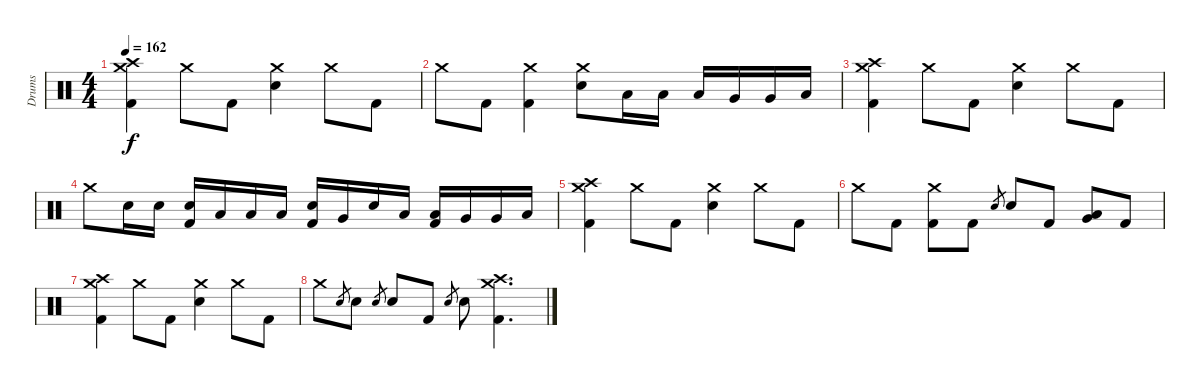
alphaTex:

\track ("Drums" "Drums") {instrument percussion}
\staff {score}
\articulation defaults
\ts (4 4)
\tempo 162
\clef neutral
\ks c
("Crash medium (hit)" "Crash high (hit)" "Kick (hit) 2").4{dy f} "Crash medium (hit)".8 "Kick (hit) 2".8 ("Crash medium (hit)" "Electric Snare (hit)").4 "Crash medium (hit)".8 "Kick (hit) 2".8 |
"Crash medium (hit)".8 "Kick (hit) 2".8 ("Crash medium (hit)" "Kick (hit) 2").4 ("Crash medium (hit)" "Electric Snare (hit)").8 "Low Tom (hit)".16 "Low Tom (hit)".16 "Low Tom (hit)".16 "Very Low Tom (hit)".16 "Very Low Tom (hit)".16 "Low Floor Tom (hit)".16 |
("Crash medium (hit)" "Crash high (hit)" "Kick (hit) 2").4 "Crash medium (hit)".8 "Kick (hit) 2".8 ("Crash medium (hit)" "Electric Snare (hit)").4 "Crash medium (hit)".8 "Kick (hit) 2".8 |
"Crash medium (hit)".8 "Electric Snare (hit)".16 "Electric Snare (hit)".16 ("Electric Snare (hit)" "Kick (hit) 2").16 "Low Tom (hit)".16 "Low Tom (hit)".16 "Low Tom (hit)".16 ("Electric Snare (hit)" "Kick (hit) 2").16 "Very Low Tom (hit)".16 "Electric Snare (hit)".16 "Low Tom (hit)".16 ("Low Tom (hit)" "Kick (hit) 2").16 "Very Low Tom (hit)".16 "Very Low Tom (hit)".16 "Low Floor Tom (hit)".16 |
("Crash medium (hit)" "Crash high (hit)" "Kick (hit) 2").4 "Crash medium (hit)".8 "Kick (hit) 2".8 ("Crash medium (hit)" "Electric Snare (hit)").4 "Crash medium (hit)".8 "Kick (hit) 2".8 |
"Crash medium (hit)".8 "Kick (hit) 2".8 ("Crash medium (hit)" "Kick (hit) 2").8 "Kick (hit) 2".8 "Electric Snare (hit)".8{gr} "Electric Snare (hit)".8 "Kick (hit) 2".8 ("Low Floor Tom (hit)" "Very Low Tom (hit)").8{bd 120} "Kick (hit) 2".8 |
("Crash medium (hit)" "Crash high (hit)" "Kick (hit) 2").4 "Crash medium (hit)".8 "Kick (hit) 2".8 ("Crash medium (hit)" "Electric Snare (hit)").4 "Crash medium (hit)".8 "Kick (hit) 2".8 |
"Crash medium (hit)".8 "Electric Snare (hit)".8{gr} "Electric Snare (hit)".8 "Electric Snare (hit)".8{gr} "Electric Snare (hit)".8 "Kick (hit) 2".8 "Electric Snare (hit)".8{gr} "Electric Snare (hit)".8 ("Crash medium (hit)" "Crash high (hit)" "Kick (hit) 2").4{d}
